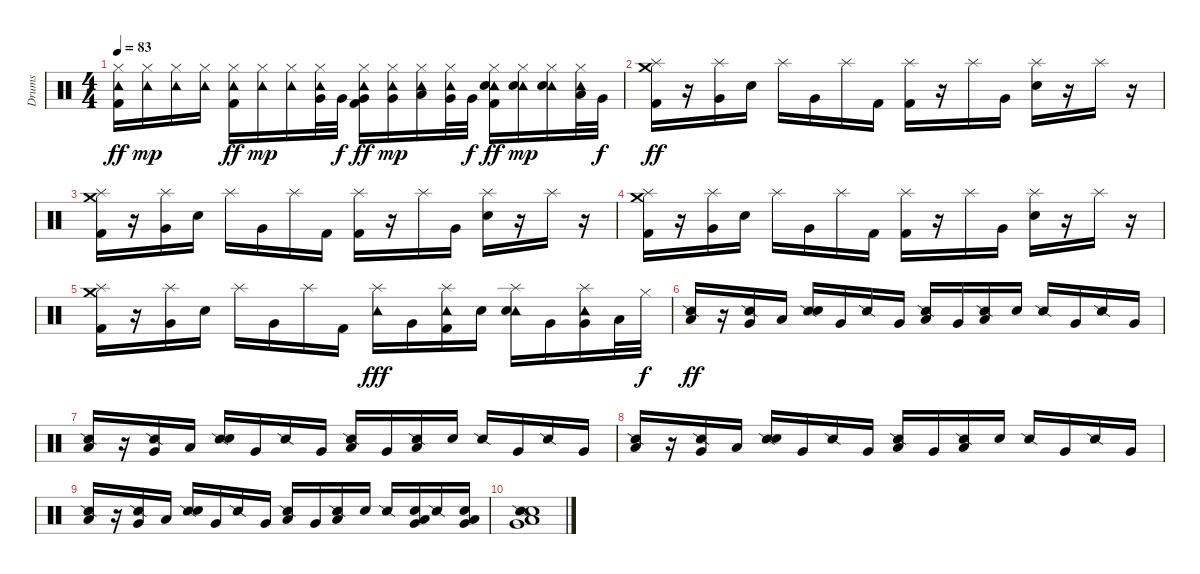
\track ("Drums" "Drums") {instrument percussion}
\staff {score}
\articulation defaults
\ts (4 4)
\tempo 83
\clef neutral
\ks c
("Hi-Hat (closed)" "Tambourine (hit)" "Kick (hit) 2").16{dy ff} ("Hi-Hat (closed)" "Tambourine (hit)").16{dy mp} ("Hi-Hat (closed)" "Tambourine (hit)").16 ("Hi-Hat (closed)" "Tambourine (hit)").16 ("Hi-Hat (closed)" "Tambourine (hit)" "Kick (hit) 2").16{dy ff} ("Hi-Hat (closed)" "Tambourine (hit)").16{dy mp} ("Hi-Hat (closed)" "Tambourine (hit)").16 ("Hi-Hat (closed)" "Tambourine (hit)" "Very Low Tom (hit)").32 "Very Low Tom (hit)".32{dy f} ("Hi-Hat (closed)" "Tambourine (hit)" "Very Low Tom (hit)" "Kick (hit) 2").16{dy ff} ("Hi-Hat (closed)" "Tambourine (hit)" "Very Low Tom (hit)").16{dy mp} ("Hi-Hat (closed)" "Tambourine (hit)" "Low Floor Tom (hit)").16 ("Hi-Hat (closed)" "Tambourine (hit)" "Very Low Tom (hit)").32 "Very Low Tom (hit)".32{dy f} ("Hi-Hat (closed)" "Tambourine (hit)" "Snare (hit) 2" "Kick (hit) 2").16{dy ff} ("Hi-Hat (closed)" "Tambourine (hit)" "Snare (hit) 2").16{dy mp} ("Hi-Hat (closed)" "Tambourine (hit)" "Snare (hit) 2").16 ("Hi-Hat (closed)" "Tambourine (hit)" "Low Floor Tom (hit)").32 "Very Low Tom (hit)".32{dy f} |
("Crash medium (hit)" "Splash (hit)" "Kick (hit) 2").16{dy ff} r.16 ("Splash (hit)" "Very Low Tom (hit)").16 "Snare (hit) 2".16 "Splash (hit)".16 "Very Low Tom (hit)".16 "Splash (hit)".16 "Kick (hit) 2".16 ("Splash (hit)" "Kick (hit) 2").16 r.16 "Splash (hit)".16 "Very Low Tom (hit)".16 ("Splash (hit)" "Snare (hit) 2").16 r.16 "Splash (hit)".16 r.16 |
("Crash medium (hit)" "Splash (hit)" "Kick (hit) 2").16 r.16 ("Splash (hit)" "Very Low Tom (hit)").16 "Snare (hit) 2".16 "Splash (hit)".16 "Very Low Tom (hit)".16 "Splash (hit)".16 "Kick (hit) 2".16 ("Splash (hit)" "Kick (hit) 2").16 r.16 "Splash (hit)".16 "Very Low Tom (hit)".16 ("Splash (hit)" "Snare (hit) 2").16 r.16 "Splash (hit)".16 r.16 |
("Crash medium (hit)" "Splash (hit)" "Kick (hit) 2").16 r.16 ("Splash (hit)" "Very Low Tom (hit)").16 "Snare (hit) 2".16 "Splash (hit)".16 "Very Low Tom (hit)".16 "Splash (hit)".16 "Kick (hit) 2".16 ("Splash (hit)" "Kick (hit) 2").16 r.16 "Splash (hit)".16 "Very Low Tom (hit)".16 ("Splash (hit)" "Snare (hit) 2").16 r.16 "Splash (hit)".16 r.16 |
("Crash medium (hit)" "Splash (hit)" "Kick (hit) 2").16 r.16 ("Splash (hit)" "Very Low Tom (hit)").16 "Snare (hit) 2".16 "Splash (hit)".16 "Very Low Tom (hit)".16 "Splash (hit)".16 "Kick (hit) 2".16 ("Splash (hit)" "Tambourine (hit)").16{dy fff} "Very Low Tom (hit)".16 ("Splash (hit)" "Tambourine (hit)" "Kick (hit) 2").16 "Snare (hit) 2".16 ("Splash (hit)" "Tambourine (hit)" "Snare (hit) 2").16 "Very Low Tom (hit)".16 ("Splash (hit)" "Tambourine (hit)" "Very Low Tom (hit)").16 "Low Floor Tom (hit)".32 "Hi-Hat (closed)".32{dy f} |
("Snare (side stick) 2" "Low Floor Tom (hit)").16{dy ff} r.16 ("Snare (side stick) 2" "Very Low Tom (hit)").16 "Low Floor Tom (hit)".16 ("Snare (side stick) 2" "Snare (hit) 2").16 "Very Low Tom (hit)".16 "Snare (side stick) 2".16 "Very Low Tom (hit)".16 ("Snare (side stick) 2" "Low Floor Tom (hit)").16 "Very Low Tom (hit)".16 ("Snare (side stick) 2" "Low Floor Tom (hit)").16 "Snare (hit) 2".16 "Snare (side stick) 2".16 "Very Low Tom (hit)".16 "Snare (side stick) 2".16 "Very Low Tom (hit)".16 |
("Snare (side stick) 2" "Low Floor Tom (hit)").16 r.16 ("Snare (side stick) 2" "Very Low Tom (hit)").16 "Low Floor Tom (hit)".16 ("Snare (side stick) 2" "Snare (hit) 2").16 "Very Low Tom (hit)".16 "Snare (side stick) 2".16 "Very Low Tom (hit)".16 ("Snare (side stick) 2" "Low Floor Tom (hit)").16 "Very Low Tom (hit)".16 ("Snare (side stick) 2" "Low Floor Tom (hit)").16 "Snare (hit) 2".16 "Snare (side stick) 2".16 "Very Low Tom (hit)".16 "Snare (side stick) 2".16 "Very Low Tom (hit)".16 |
("Snare (side stick) 2" "Low Floor Tom (hit)").16 r.16 ("Snare (side stick) 2" "Very Low Tom (hit)").16 "Low Floor Tom (hit)".16 ("Snare (side stick) 2" "Snare (hit) 2").16 "Very Low Tom (hit)".16 "Snare (side stick) 2".16 "Very Low Tom (hit)".16 ("Snare (side stick) 2" "Low Floor Tom (hit)").16 "Very Low Tom (hit)".16 ("Snare (side stick) 2" "Low Floor Tom (hit)").16 "Snare (hit) 2".16 "Snare (side stick) 2".16 "Very Low Tom (hit)".16 "Snare (side stick) 2".16 "Very Low Tom (hit)".16 |
("Snare (side stick) 2" "Low Floor Tom (hit)").16 r.16 ("Snare (side stick) 2" "Very Low Tom (hit)").16 "Low Floor Tom (hit)".16 ("Snare (side stick) 2" "Snare (hit) 2").16 "Very Low Tom (hit)".16 "Snare (side stick) 2".16 "Very Low Tom (hit)".16 ("Snare (side stick) 2" "Low Floor Tom (hit)").16 "Very Low Tom (hit)".16 ("Snare (side stick) 2" "Low Floor Tom (hit)").16 "Snare (hit) 2".16 "Snare (side stick) 2".16 ("Very Low Tom (hit)" "Snare (hit) 2" "Low Floor Tom (hit)").16 "Snare (side stick) 2".16 ("Very Low Tom (hit)" "Snare (hit) 2" "Low Floor Tom (hit)").16 |
("Snare (side stick) 2" "Very Low Tom (hit)" "Snare (hit) 2" "Low Floor Tom (hit)").1
